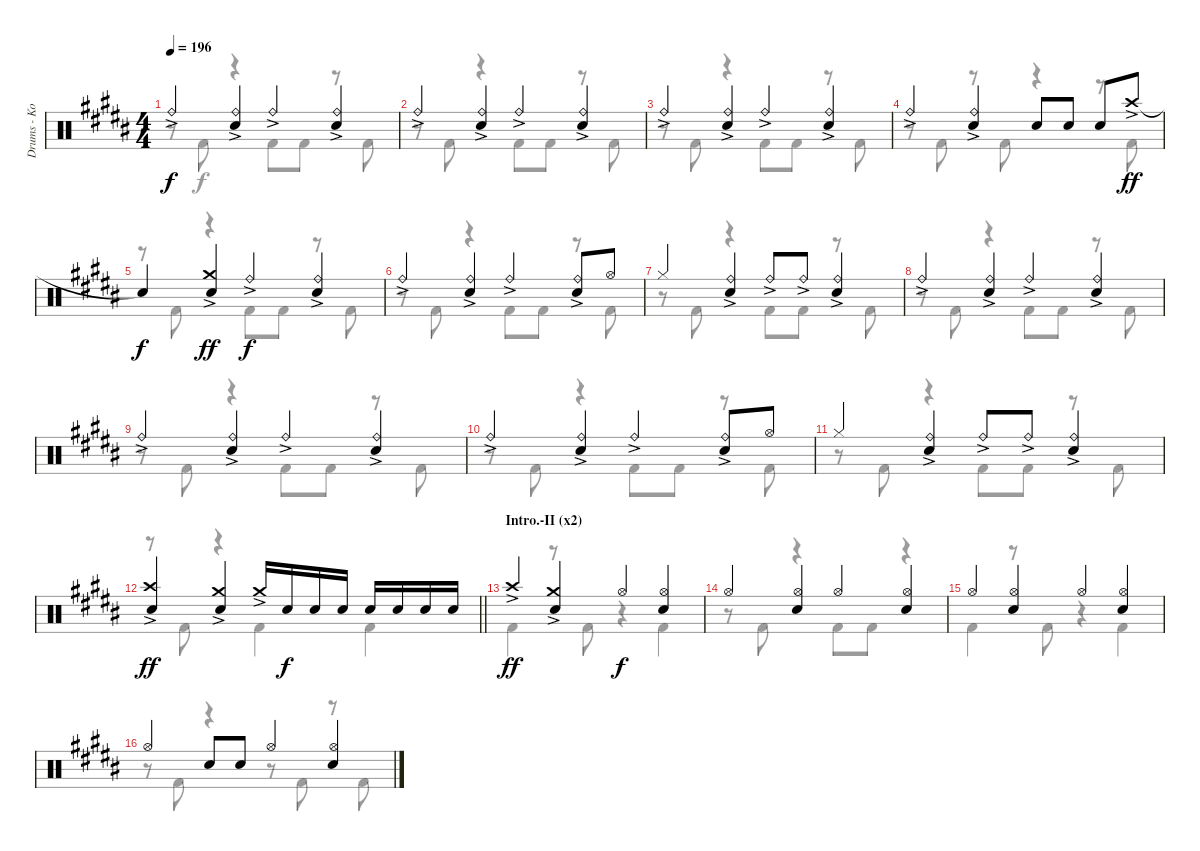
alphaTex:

\track ("Drums - Koji Hasegawa" "Drums - Ko") {instrument percussion}
\staff {score}
\articulation defaults
\voice
\ts (4 4)
\tempo 196
\clef neutral
\ks b "Ride (bell)"{ac}.4{dy f}
("Ride (bell)"{ac} "Snare (hit) 2").4 "Ride (bell)"{ac}.4 ("Ride (bell)"{ac} "Snare (hit) 2").4 |
"Ride (bell)"{ac}.4 ("Ride (bell)"{ac} "Snare (hit) 2").4 "Ride (bell)"{ac}.4 ("Ride (bell)"{ac} "Snare (hit) 2").4 |
"Ride (bell)"{ac}.4 ("Ride (bell)"{ac} "Snare (hit) 2").4 "Ride (bell)"{ac}.4 ("Ride (bell)"{ac} "Snare (hit) 2").4 |
"Ride (bell)"{ac}.4 ("Ride (bell)"{ac} "Snare (hit) 2").4 "Snare (hit) 2".8 "Snare (hit) 2".8 "Snare (hit) 2".8 "Crash high (hit)"{ac}.8{dy ff} |
"Snare (hit)"{t}.4{dy f} ("Crash medium (hit)"{ac} "Snare (hit) 2").4{dy ff} "Ride (bell)"{ac}.4{dy f} ("Ride (bell)"{ac} "Snare (hit) 2").4 |
"Ride (bell)"{ac}.4 ("Ride (bell)"{ac} "Snare (hit) 2").4 "Ride (bell)"{ac}.4 ("Ride (bell)"{ac} "Snare (hit) 2").8 "Hi-Hat (open)".8 |
"Hi-Hat (closed)".4 ("Ride (bell)"{ac} "Snare (hit) 2").4 "Ride (bell)"{ac}.8 "Ride (bell)"{ac}.8 ("Ride (bell)"{ac} "Snare (hit) 2").4 |
"Ride (bell)"{ac}.4 ("Ride (bell)"{ac} "Snare (hit) 2").4 "Ride (bell)"{ac}.4 ("Ride (bell)"{ac} "Snare (hit) 2").4 |
"Ride (bell)"{ac}.4 ("Ride (bell)"{ac} "Snare (hit) 2").4 "Ride (bell)"{ac}.4 ("Ride (bell)"{ac} "Snare (hit) 2").4 |
"Ride (bell)"{ac}.4 ("Ride (bell)"{ac} "Snare (hit) 2").4 "Ride (bell)"{ac}.4 ("Ride (bell)"{ac} "Snare (hit) 2").8 "Hi-Hat (open)".8 |
"Hi-Hat (closed)".4 ("Ride (bell)"{ac} "Snare (hit) 2").4 "Ride (bell)"{ac}.8 "Ride (bell)"{ac}.8 ("Ride (bell)"{ac} "Snare (hit) 2").4 |
\barLineRight lightlight
("Crash high (hit)"{ac} "Snare (hit) 2").4{dy ff} ("Crash medium (hit)"{ac} "Snare (hit) 2").4 "Crash medium (hit)"{ac}.16 "Snare (hit) 2".16{dy f} "Snare (hit) 2".16 "Snare (hit) 2".16 "Snare (hit) 2".16 "Snare (hit) 2".16 "Snare (hit) 2".16 "Snare (hit) 2".16 |
\section ("" "Intro.-II (x2)")
"Crash high (hit)"{ac}.4{dy ff} ("Crash medium (hit)"{ac} "Snare (hit) 2").4 "Hi-Hat (open)".4{dy f} ("Hi-Hat (open)" "Snare (hit) 2").4 |
"Hi-Hat (open)".4 ("Hi-Hat (open)" "Snare (hit) 2").4 "Hi-Hat (open)".4 ("Hi-Hat (open)" "Snare (hit) 2").4 |
"Hi-Hat (open)".4 ("Hi-Hat (open)" "Snare (hit) 2").4 "Hi-Hat (open)".4 ("Hi-Hat (open)" "Snare (hit) 2").4 |
"Hi-Hat (open)".4 "Snare (hit) 2".8 "Snare (hit) 2".8 "Hi-Hat (open)".4 ("Hi-Hat (open)" "Snare (hit) 2").4
\voice
\clef neutral
\ottava regular
\simile none
\ks b
r.8{dy f} "Kick (hit) 2".8 r.4 "Kick (hit) 2".8 "Kick (hit) 2".8 r.8 "Kick (hit) 2".8 |
r.8 "Kick (hit) 2".8 r.4 "Kick (hit) 2".8 "Kick (hit) 2".8 r.8 "Kick (hit) 2".8 |
r.8 "Kick (hit) 2".8 r.4 "Kick (hit) 2".8 "Kick (hit) 2".8 r.8 "Kick (hit) 2".8 |
r.8 "Kick (hit) 2".8 r.8 "Kick (hit) 2".8 r.4 r.8 "Kick (hit) 2".8 |
r.8 "Kick (hit) 2".8 r.4 "Kick (hit) 2".8 "Kick (hit) 2".8 r.8 "Kick (hit) 2".8 |
r.8 "Kick (hit) 2".8 r.4 "Kick (hit) 2".8 "Kick (hit) 2".8 r.8 "Kick (hit) 2".8 |
r.8 "Kick (hit) 2".8 r.4 "Kick (hit) 2".8 "Kick (hit) 2".8 r.8 "Kick (hit) 2".8 |
r.8 "Kick (hit) 2".8 r.4 "Kick (hit) 2".8 "Kick (hit) 2".8 r.8 "Kick (hit) 2".8 |
r.8 "Kick (hit) 2".8 r.4 "Kick (hit) 2".8 "Kick (hit) 2".8 r.8 "Kick (hit) 2".8 |
r.8 "Kick (hit) 2".8 r.4 "Kick (hit) 2".8 "Kick (hit) 2".8 r.8 "Kick (hit) 2".8 |
r.8 "Kick (hit) 2".8 r.4 "Kick (hit) 2".8 "Kick (hit) 2".8 r.8 "Kick (hit) 2".8 |
\barLineRight lightlight
r.8 "Kick (hit) 2".8 r.4 "Kick (hit) 2".4 "Kick (hit) 2".4 |
"Kick (hit) 2".4 r.8 "Kick (hit) 2".8 r.4 "Kick (hit) 2".4 |
r.8 "Kick (hit) 2".8 r.4 "Kick (hit) 2".8 "Kick (hit) 2".8 r.4 |
"Kick (hit) 2".4 r.8 "Kick (hit) 2".8 r.4 "Kick (hit) 2".4 |
r.8 "Kick (hit) 2".8 r.4 r.8 "Kick (hit) 2".8 r.8 "Kick (hit) 2".8
